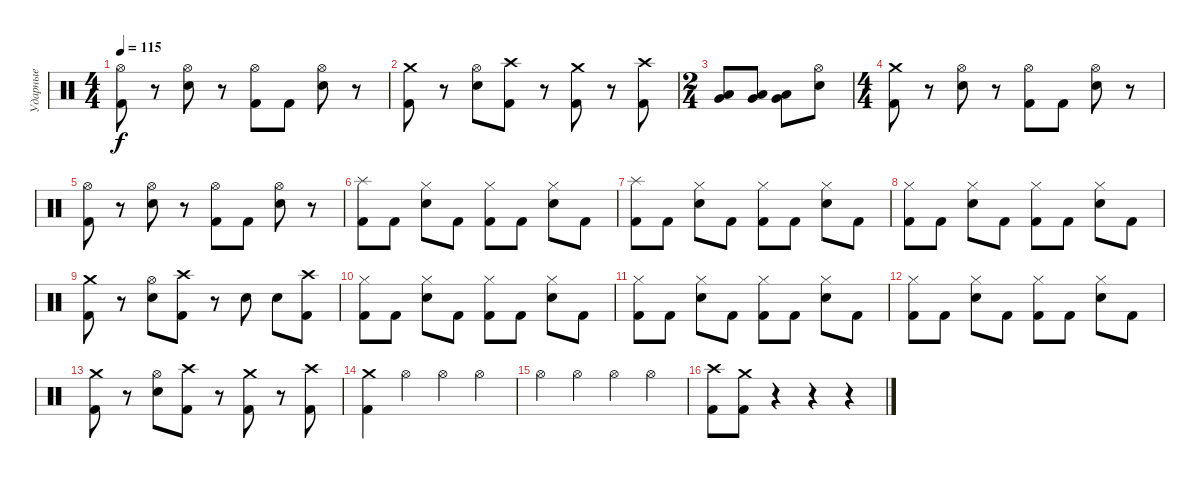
\track ("Ударные" "Ударные") {instrument percussion}
\staff {score}
\articulation defaults
\ts (4 4)
\tempo 115
\clef neutral
\ks c
("Hi-Hat (open)" "Kick (hit) 2").8{dy f} r.8 ("Hi-Hat (open)" "Electric Snare (hit)").8 r.8 ("Hi-Hat (open)" "Kick (hit) 2").8 "Kick (hit) 2".8 ("Hi-Hat (open)" "Electric Snare (hit)").8 r.8 |
("Crash medium (hit)" "Kick (hit) 2").8 r.8 ("Hi-Hat (open)" "Electric Snare (hit)").8 ("Crash high (hit)" "Kick (hit) 2").8 r.8 ("Crash medium (hit)" "Kick (hit) 2").8 r.8 ("Crash high (hit)" "Kick (hit) 2").8 |
\ts (2 4)
("Low Tom (hit)" "Very Low Tom (hit)").8 ("Low Tom (hit)" "Very Low Tom (hit)").8 ("Low Tom (hit)" "Very Low Tom (hit)").8 ("Hi-Hat (open)" "Electric Snare (hit)").8 |
\ts (4 4)
("Crash medium (hit)" "Kick (hit) 2").8 r.8 ("Hi-Hat (open)" "Electric Snare (hit)").8 r.8 ("Hi-Hat (open)" "Kick (hit) 2").8 "Kick (hit) 2".8 ("Hi-Hat (open)" "Electric Snare (hit)").8 r.8 |
("Hi-Hat (open)" "Kick (hit) 2").8 r.8 ("Hi-Hat (open)" "Electric Snare (hit)").8 r.8 ("Hi-Hat (open)" "Kick (hit) 2").8 "Kick (hit) 2".8 ("Hi-Hat (open)" "Electric Snare (hit)").8 r.8 |
("Splash (hit)" "Kick (hit) 2").8 "Kick (hit) 2".8 ("Hi-Hat (closed)" "Electric Snare (hit)").8 "Kick (hit) 2".8 ("Hi-Hat (closed)" "Kick (hit) 2").8 "Kick (hit) 2".8 ("Hi-Hat (closed)" "Electric Snare (hit)").8 "Kick (hit) 2".8 |
("Splash (hit)" "Kick (hit) 2").8 "Kick (hit) 2".8 ("Hi-Hat (closed)" "Electric Snare (hit)").8 "Kick (hit) 2".8 ("Hi-Hat (closed)" "Kick (hit) 2").8 "Kick (hit) 2".8 ("Hi-Hat (closed)" "Electric Snare (hit)").8 "Kick (hit) 2".8 |
("Hi-Hat (closed)" "Kick (hit) 2").8 "Kick (hit) 2".8 ("Hi-Hat (closed)" "Electric Snare (hit)").8 "Kick (hit) 2".8 ("Hi-Hat (closed)" "Kick (hit) 2").8 "Kick (hit) 2".8 ("Hi-Hat (closed)" "Electric Snare (hit)").8 "Kick (hit) 2".8 |
("Crash medium (hit)" "Kick (hit) 2").8 r.8 ("Hi-Hat (open)" "Electric Snare (hit)").8 ("Crash high (hit)" "Kick (hit) 2").8 r.8 "Electric Snare (hit)".8 "Electric Snare (hit)".8 ("Crash high (hit)" "Kick (hit) 2").8 |
("Hi-Hat (closed)" "Kick (hit) 2").8 "Kick (hit) 2".8 ("Hi-Hat (closed)" "Electric Snare (hit)").8 "Kick (hit) 2".8 ("Hi-Hat (closed)" "Kick (hit) 2").8 "Kick (hit) 2".8 ("Hi-Hat (closed)" "Electric Snare (hit)").8 "Kick (hit) 2".8 |
("Hi-Hat (closed)" "Kick (hit) 2").8 "Kick (hit) 2".8 ("Hi-Hat (closed)" "Electric Snare (hit)").8 "Kick (hit) 2".8 ("Hi-Hat (closed)" "Kick (hit) 2").8 "Kick (hit) 2".8 ("Hi-Hat (closed)" "Electric Snare (hit)").8 "Kick (hit) 2".8 |
("Hi-Hat (closed)" "Kick (hit) 2").8 "Kick (hit) 2".8 ("Hi-Hat (closed)" "Electric Snare (hit)").8 "Kick (hit) 2".8 ("Hi-Hat (closed)" "Kick (hit) 2").8 "Kick (hit) 2".8 ("Hi-Hat (closed)" "Electric Snare (hit)").8 "Kick (hit) 2".8 |
("Crash medium (hit)" "Kick (hit) 2").8 r.8 ("Hi-Hat (open)" "Electric Snare (hit)").8 ("Crash high (hit)" "Kick (hit) 2").8 r.8 ("Crash medium (hit)" "Kick (hit) 2").8 r.8 ("Crash high (hit)" "Kick (hit) 2").8 |
("Crash medium (hit)" "Kick (hit) 2").4 "Hi-Hat (open)".4 "Hi-Hat (open)".4 "Hi-Hat (open)".4 |
"Hi-Hat (open)".4 "Hi-Hat (open)".4 "Hi-Hat (open)".4 "Hi-Hat (open)".4 |
("Crash high (hit)" "Kick (hit) 2").8 ("Crash medium (hit)" "Kick (hit) 2").8 r.4 r.4 r.4
